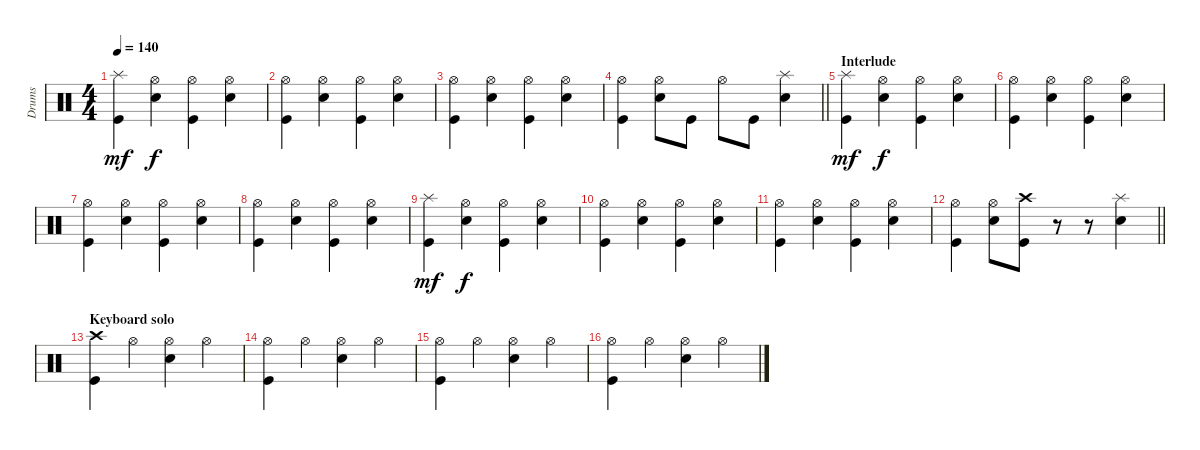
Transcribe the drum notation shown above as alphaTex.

\track ("Drums" "Drums") {instrument percussion}
\staff {score}
\articulation defaults
\ts (4 4)
\tempo 140
\clef neutral
\ks c
("Splash (hit)" "Kick (hit)").4{dy mf} ("Hi-Hat (open)" "Electric Snare (hit)").4{dy f} ("Hi-Hat (open)" "Kick (hit)").4 ("Hi-Hat (open)" "Electric Snare (hit)").4 |
("Hi-Hat (open)" "Kick (hit)").4 ("Hi-Hat (open)" "Electric Snare (hit)").4 ("Hi-Hat (open)" "Kick (hit)").4 ("Hi-Hat (open)" "Electric Snare (hit)").4 |
("Hi-Hat (open)" "Kick (hit)").4 ("Hi-Hat (open)" "Electric Snare (hit)").4 ("Hi-Hat (open)" "Kick (hit)").4 ("Hi-Hat (open)" "Electric Snare (hit)").4 |
\barLineRight lightlight
("Hi-Hat (open)" "Kick (hit)").4 ("Hi-Hat (open)" "Electric Snare (hit)").8 "Kick (hit)".8 "Hi-Hat (open)".8 "Kick (hit)".8 ("Splash (hit)" "Electric Snare (hit)").4 |
\section ("" "Interlude")
("Splash (hit)" "Kick (hit)").4{dy mf} ("Hi-Hat (open)" "Electric Snare (hit)").4{dy f} ("Hi-Hat (open)" "Kick (hit)").4 ("Hi-Hat (open)" "Electric Snare (hit)").4 |
("Hi-Hat (open)" "Kick (hit)").4 ("Hi-Hat (open)" "Electric Snare (hit)").4 ("Hi-Hat (open)" "Kick (hit)").4 ("Hi-Hat (open)" "Electric Snare (hit)").4 |
("Hi-Hat (open)" "Kick (hit)").4 ("Hi-Hat (open)" "Electric Snare (hit)").4 ("Hi-Hat (open)" "Kick (hit)").4 ("Hi-Hat (open)" "Electric Snare (hit)").4 |
("Hi-Hat (open)" "Kick (hit)").4 ("Hi-Hat (open)" "Electric Snare (hit)").4 ("Hi-Hat (open)" "Kick (hit)").4 ("Hi-Hat (open)" "Electric Snare (hit)").4 |
("Splash (hit)" "Kick (hit)").4{dy mf} ("Hi-Hat (open)" "Electric Snare (hit)").4{dy f} ("Hi-Hat (open)" "Kick (hit)").4 ("Hi-Hat (open)" "Electric Snare (hit)").4 |
("Hi-Hat (open)" "Kick (hit)").4 ("Hi-Hat (open)" "Electric Snare (hit)").4 ("Hi-Hat (open)" "Kick (hit)").4 ("Hi-Hat (open)" "Electric Snare (hit)").4 |
("Hi-Hat (open)" "Kick (hit)").4 ("Hi-Hat (open)" "Electric Snare (hit)").4 ("Hi-Hat (open)" "Kick (hit)").4 ("Hi-Hat (open)" "Electric Snare (hit)").4 |
\barLineRight lightlight
("Hi-Hat (open)" "Kick (hit)").4 ("Hi-Hat (open)" "Electric Snare (hit)").8 ("Crash high (hit)" "Kick (hit)").8 r.8 r.8 ("Splash (hit)" "Electric Snare (hit)").4 |
\section ("" "Keyboard solo")
("Crash high (hit)" "Kick (hit)").4 "Hi-Hat (open)".4 ("Hi-Hat (open)" "Electric Snare (hit)").4 "Hi-Hat (open)".4 |
("Hi-Hat (open)" "Kick (hit)").4 "Hi-Hat (open)".4 ("Hi-Hat (open)" "Electric Snare (hit)").4 "Hi-Hat (open)".4 |
("Hi-Hat (open)" "Kick (hit)").4 "Hi-Hat (open)".4 ("Hi-Hat (open)" "Electric Snare (hit)").4 "Hi-Hat (open)".4 |
("Hi-Hat (open)" "Kick (hit)").4 "Hi-Hat (open)".4 ("Hi-Hat (open)" "Electric Snare (hit)").4 "Hi-Hat (open)".4
